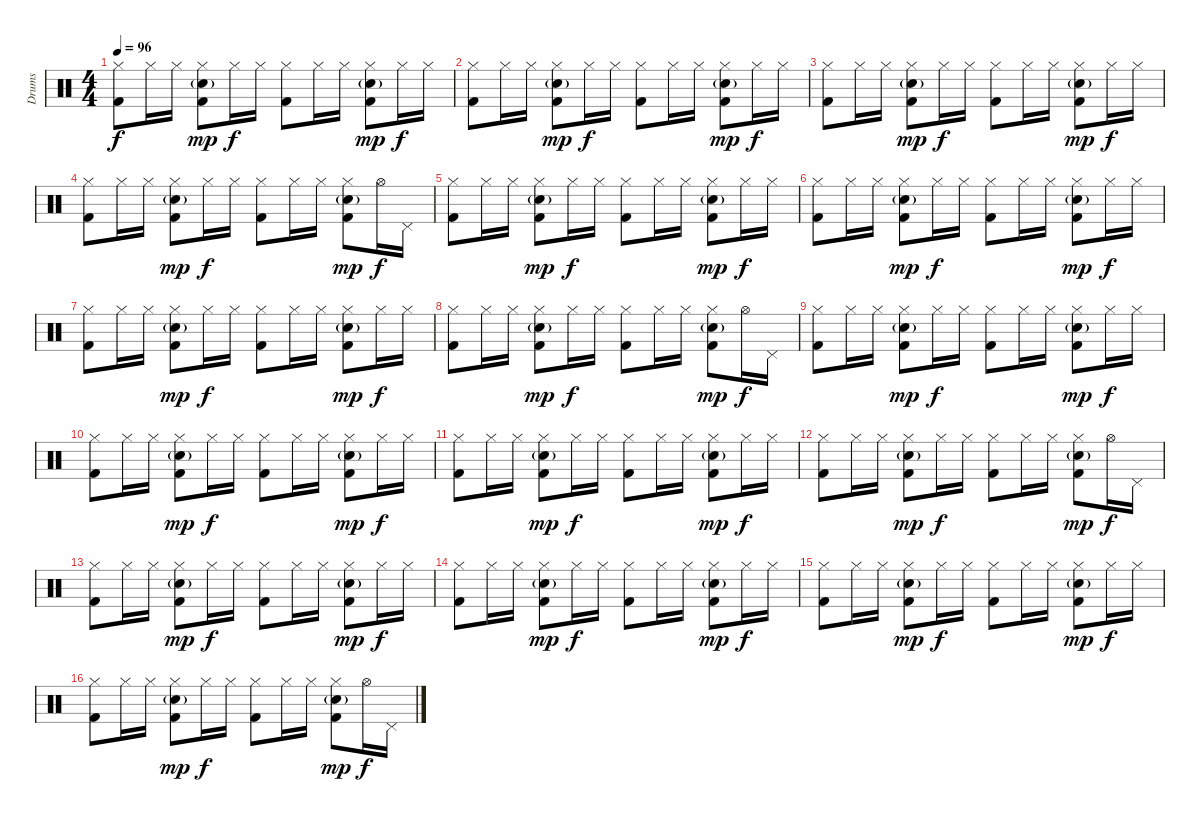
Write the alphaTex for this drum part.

\track ("Drums" "Drums") {instrument percussion}
\staff {score}
\articulation defaults
\ts (4 4)
\tempo 96
\clef neutral
\ks c
("Hi-Hat (closed)" "Kick (hit) 2").8{dy f} "Hi-Hat (closed)".16 "Hi-Hat (closed)".16 ("Hi-Hat (closed)" "Snare (hit) 2"{g} "Kick (hit) 2").8{dy mp} "Hi-Hat (closed)".16{dy f} "Hi-Hat (closed)".16 ("Hi-Hat (closed)" "Kick (hit) 2").8 "Hi-Hat (closed)".16 "Hi-Hat (closed)".16 ("Hi-Hat (closed)" "Snare (hit) 2"{g} "Kick (hit) 2").8{dy mp} "Hi-Hat (closed)".16{dy f} "Hi-Hat (closed)".16 |
("Hi-Hat (closed)" "Kick (hit) 2").8 "Hi-Hat (closed)".16 "Hi-Hat (closed)".16 ("Hi-Hat (closed)" "Snare (hit) 2"{g} "Kick (hit) 2").8{dy mp} "Hi-Hat (closed)".16{dy f} "Hi-Hat (closed)".16 ("Hi-Hat (closed)" "Kick (hit) 2").8 "Hi-Hat (closed)".16 "Hi-Hat (closed)".16 ("Hi-Hat (closed)" "Snare (hit) 2"{g} "Kick (hit) 2").8{dy mp} "Hi-Hat (closed)".16{dy f} "Hi-Hat (closed)".16 |
("Hi-Hat (closed)" "Kick (hit) 2").8 "Hi-Hat (closed)".16 "Hi-Hat (closed)".16 ("Hi-Hat (closed)" "Snare (hit) 2"{g} "Kick (hit) 2").8{dy mp} "Hi-Hat (closed)".16{dy f} "Hi-Hat (closed)".16 ("Hi-Hat (closed)" "Kick (hit) 2").8 "Hi-Hat (closed)".16 "Hi-Hat (closed)".16 ("Hi-Hat (closed)" "Snare (hit) 2"{g} "Kick (hit) 2").8{dy mp} "Hi-Hat (closed)".16{dy f} "Hi-Hat (closed)".16 |
("Hi-Hat (closed)" "Kick (hit) 2").8 "Hi-Hat (closed)".16 "Hi-Hat (closed)".16 ("Hi-Hat (closed)" "Snare (hit) 2"{g} "Kick (hit) 2").8{dy mp} "Hi-Hat (closed)".16{dy f} "Hi-Hat (closed)".16 ("Hi-Hat (closed)" "Kick (hit) 2").8 "Hi-Hat (closed)".16 "Hi-Hat (closed)".16 ("Hi-Hat (closed)" "Snare (hit) 2"{g} "Kick (hit) 2").8{dy mp} "Hi-Hat (open)".16{dy f} "Pedal Hi-Hat (hit)".16 |
("Hi-Hat (closed)" "Kick (hit) 2").8 "Hi-Hat (closed)".16 "Hi-Hat (closed)".16 ("Hi-Hat (closed)" "Snare (hit) 2"{g} "Kick (hit) 2").8{dy mp} "Hi-Hat (closed)".16{dy f} "Hi-Hat (closed)".16 ("Hi-Hat (closed)" "Kick (hit) 2").8 "Hi-Hat (closed)".16 "Hi-Hat (closed)".16 ("Hi-Hat (closed)" "Snare (hit) 2"{g} "Kick (hit) 2").8{dy mp} "Hi-Hat (closed)".16{dy f} "Hi-Hat (closed)".16 |
("Hi-Hat (closed)" "Kick (hit) 2").8 "Hi-Hat (closed)".16 "Hi-Hat (closed)".16 ("Hi-Hat (closed)" "Snare (hit) 2"{g} "Kick (hit) 2").8{dy mp} "Hi-Hat (closed)".16{dy f} "Hi-Hat (closed)".16 ("Hi-Hat (closed)" "Kick (hit) 2").8 "Hi-Hat (closed)".16 "Hi-Hat (closed)".16 ("Hi-Hat (closed)" "Snare (hit) 2"{g} "Kick (hit) 2").8{dy mp} "Hi-Hat (closed)".16{dy f} "Hi-Hat (closed)".16 |
("Hi-Hat (closed)" "Kick (hit) 2").8 "Hi-Hat (closed)".16 "Hi-Hat (closed)".16 ("Hi-Hat (closed)" "Snare (hit) 2"{g} "Kick (hit) 2").8{dy mp} "Hi-Hat (closed)".16{dy f} "Hi-Hat (closed)".16 ("Hi-Hat (closed)" "Kick (hit) 2").8 "Hi-Hat (closed)".16 "Hi-Hat (closed)".16 ("Hi-Hat (closed)" "Snare (hit) 2"{g} "Kick (hit) 2").8{dy mp} "Hi-Hat (closed)".16{dy f} "Hi-Hat (closed)".16 |
("Hi-Hat (closed)" "Kick (hit) 2").8 "Hi-Hat (closed)".16 "Hi-Hat (closed)".16 ("Hi-Hat (closed)" "Snare (hit) 2"{g} "Kick (hit) 2").8{dy mp} "Hi-Hat (closed)".16{dy f} "Hi-Hat (closed)".16 ("Hi-Hat (closed)" "Kick (hit) 2").8 "Hi-Hat (closed)".16 "Hi-Hat (closed)".16 ("Hi-Hat (closed)" "Snare (hit) 2"{g} "Kick (hit) 2").8{dy mp} "Hi-Hat (open)".16{dy f} "Pedal Hi-Hat (hit)".16 |
("Hi-Hat (closed)" "Kick (hit) 2").8 "Hi-Hat (closed)".16 "Hi-Hat (closed)".16 ("Hi-Hat (closed)" "Snare (hit) 2"{g} "Kick (hit) 2").8{dy mp} "Hi-Hat (closed)".16{dy f} "Hi-Hat (closed)".16 ("Hi-Hat (closed)" "Kick (hit) 2").8 "Hi-Hat (closed)".16 "Hi-Hat (closed)".16 ("Hi-Hat (closed)" "Snare (hit) 2"{g} "Kick (hit) 2").8{dy mp} "Hi-Hat (closed)".16{dy f} "Hi-Hat (closed)".16 |
("Hi-Hat (closed)" "Kick (hit) 2").8 "Hi-Hat (closed)".16 "Hi-Hat (closed)".16 ("Hi-Hat (closed)" "Snare (hit) 2"{g} "Kick (hit) 2").8{dy mp} "Hi-Hat (closed)".16{dy f} "Hi-Hat (closed)".16 ("Hi-Hat (closed)" "Kick (hit) 2").8 "Hi-Hat (closed)".16 "Hi-Hat (closed)".16 ("Hi-Hat (closed)" "Snare (hit) 2"{g} "Kick (hit) 2").8{dy mp} "Hi-Hat (closed)".16{dy f} "Hi-Hat (closed)".16 |
("Hi-Hat (closed)" "Kick (hit) 2").8 "Hi-Hat (closed)".16 "Hi-Hat (closed)".16 ("Hi-Hat (closed)" "Snare (hit) 2"{g} "Kick (hit) 2").8{dy mp} "Hi-Hat (closed)".16{dy f} "Hi-Hat (closed)".16 ("Hi-Hat (closed)" "Kick (hit) 2").8 "Hi-Hat (closed)".16 "Hi-Hat (closed)".16 ("Hi-Hat (closed)" "Snare (hit) 2"{g} "Kick (hit) 2").8{dy mp} "Hi-Hat (closed)".16{dy f} "Hi-Hat (closed)".16 |
("Hi-Hat (closed)" "Kick (hit) 2").8 "Hi-Hat (closed)".16 "Hi-Hat (closed)".16 ("Hi-Hat (closed)" "Snare (hit) 2"{g} "Kick (hit) 2").8{dy mp} "Hi-Hat (closed)".16{dy f} "Hi-Hat (closed)".16 ("Hi-Hat (closed)" "Kick (hit) 2").8 "Hi-Hat (closed)".16 "Hi-Hat (closed)".16 ("Hi-Hat (closed)" "Snare (hit) 2"{g} "Kick (hit) 2").8{dy mp} "Hi-Hat (open)".16{dy f} "Pedal Hi-Hat (hit)".16 |
("Hi-Hat (closed)" "Kick (hit) 2").8 "Hi-Hat (closed)".16 "Hi-Hat (closed)".16 ("Hi-Hat (closed)" "Snare (hit) 2"{g} "Kick (hit) 2").8{dy mp} "Hi-Hat (closed)".16{dy f} "Hi-Hat (closed)".16 ("Hi-Hat (closed)" "Kick (hit) 2").8 "Hi-Hat (closed)".16 "Hi-Hat (closed)".16 ("Hi-Hat (closed)" "Snare (hit) 2"{g} "Kick (hit) 2").8{dy mp} "Hi-Hat (closed)".16{dy f} "Hi-Hat (closed)".16 |
("Hi-Hat (closed)" "Kick (hit) 2").8 "Hi-Hat (closed)".16 "Hi-Hat (closed)".16 ("Hi-Hat (closed)" "Snare (hit) 2"{g} "Kick (hit) 2").8{dy mp} "Hi-Hat (closed)".16{dy f} "Hi-Hat (closed)".16 ("Hi-Hat (closed)" "Kick (hit) 2").8 "Hi-Hat (closed)".16 "Hi-Hat (closed)".16 ("Hi-Hat (closed)" "Snare (hit) 2"{g} "Kick (hit) 2").8{dy mp} "Hi-Hat (closed)".16{dy f} "Hi-Hat (closed)".16 |
("Hi-Hat (closed)" "Kick (hit) 2").8 "Hi-Hat (closed)".16 "Hi-Hat (closed)".16 ("Hi-Hat (closed)" "Snare (hit) 2"{g} "Kick (hit) 2").8{dy mp} "Hi-Hat (closed)".16{dy f} "Hi-Hat (closed)".16 ("Hi-Hat (closed)" "Kick (hit) 2").8 "Hi-Hat (closed)".16 "Hi-Hat (closed)".16 ("Hi-Hat (closed)" "Snare (hit) 2"{g} "Kick (hit) 2").8{dy mp} "Hi-Hat (closed)".16{dy f} "Hi-Hat (closed)".16 |
("Hi-Hat (closed)" "Kick (hit) 2").8 "Hi-Hat (closed)".16 "Hi-Hat (closed)".16 ("Hi-Hat (closed)" "Snare (hit) 2"{g} "Kick (hit) 2").8{dy mp} "Hi-Hat (closed)".16{dy f} "Hi-Hat (closed)".16 ("Hi-Hat (closed)" "Kick (hit) 2").8 "Hi-Hat (closed)".16 "Hi-Hat (closed)".16 ("Hi-Hat (closed)" "Snare (hit) 2"{g} "Kick (hit) 2").8{dy mp} "Hi-Hat (open)".16{dy f} "Pedal Hi-Hat (hit)".16
